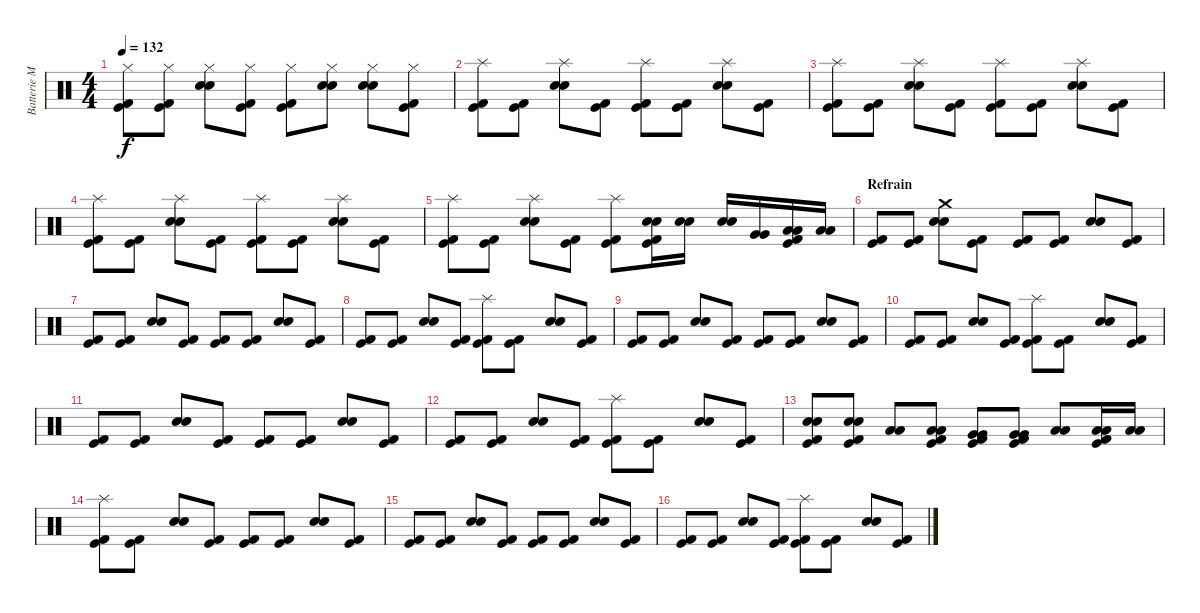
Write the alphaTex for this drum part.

\track ("Batterie Mat" "Batterie M") {instrument percussion}
\staff {score}
\articulation defaults
\ts (4 4)
\tempo 132
\clef neutral
\ks c
("Hi-Hat (closed)" "Kick (hit) 2" "Kick (hit)").8{dy f} ("Hi-Hat (closed)" "Kick (hit) 2" "Kick (hit)").8 ("Hi-Hat (closed)" "Electric Snare (hit)" "Electric Snare (hit)").8 ("Hi-Hat (closed)" "Kick (hit) 2" "Kick (hit)").8 ("Hi-Hat (closed)" "Kick (hit) 2" "Kick (hit)").8 ("Hi-Hat (closed)" "Electric Snare (hit)" "Electric Snare (hit)").8 ("Hi-Hat (closed)" "Electric Snare (hit)" "Electric Snare (hit)").8 ("Hi-Hat (closed)" "Kick (hit) 2" "Kick (hit)").8 |
("Splash (hit)" "Kick (hit) 2" "Kick (hit)").8 ("Kick (hit) 2" "Kick (hit)").8 ("Splash (hit)" "Electric Snare (hit)" "Electric Snare (hit)").8 ("Kick (hit) 2" "Kick (hit)").8 ("Splash (hit)" "Kick (hit) 2" "Kick (hit)").8 ("Kick (hit) 2" "Kick (hit)").8 ("Splash (hit)" "Electric Snare (hit)" "Electric Snare (hit)").8 ("Kick (hit) 2" "Kick (hit)").8 |
("Splash (hit)" "Kick (hit) 2" "Kick (hit)").8 ("Kick (hit) 2" "Kick (hit)").8 ("Splash (hit)" "Electric Snare (hit)" "Electric Snare (hit)").8 ("Kick (hit) 2" "Kick (hit)").8 ("Splash (hit)" "Kick (hit) 2" "Kick (hit)").8 ("Kick (hit) 2" "Kick (hit)").8 ("Splash (hit)" "Electric Snare (hit)" "Electric Snare (hit)").8 ("Kick (hit) 2" "Kick (hit)").8 |
("Splash (hit)" "Kick (hit) 2" "Kick (hit)").8 ("Kick (hit) 2" "Kick (hit)").8 ("Splash (hit)" "Electric Snare (hit)" "Electric Snare (hit)").8 ("Kick (hit) 2" "Kick (hit)").8 ("Splash (hit)" "Kick (hit) 2" "Kick (hit)").8 ("Kick (hit) 2" "Kick (hit)").8 ("Splash (hit)" "Electric Snare (hit)" "Electric Snare (hit)").8 ("Kick (hit) 2" "Kick (hit)").8 |
("Splash (hit)" "Kick (hit) 2" "Kick (hit)").8 ("Kick (hit) 2" "Kick (hit)").8 ("Splash (hit)" "Electric Snare (hit)" "Electric Snare (hit)").8 ("Kick (hit) 2" "Kick (hit)").8 ("Splash (hit)" "Kick (hit) 2" "Kick (hit)").8 ("Electric Snare (hit)" "Electric Snare (hit)" "Kick (hit) 2" "Kick (hit)").16 ("Electric Snare (hit)" "Electric Snare (hit)").16 ("Electric Snare (hit)" "Electric Snare (hit)").16 ("Very Low Tom (hit)" "Very Low Tom (hit)").16 ("Low Floor Tom (hit)" "Low Floor Tom (hit)" "Kick (hit) 2" "Kick (hit)").16 ("Low Floor Tom (hit)" "Low Floor Tom (hit)").16 |
\section ("" "Refrain")
("Kick (hit) 2" "Kick (hit)").8 ("Kick (hit) 2" "Kick (hit)").8 ("Crash medium (hit)" "Electric Snare (hit)" "Electric Snare (hit)").8 ("Kick (hit) 2" "Kick (hit)").8 ("Kick (hit) 2" "Kick (hit)").8 ("Kick (hit) 2" "Kick (hit)").8 ("Electric Snare (hit)" "Electric Snare (hit)").8 ("Kick (hit) 2" "Kick (hit)").8 |
("Kick (hit) 2" "Kick (hit)").8 ("Kick (hit) 2" "Kick (hit)").8 ("Electric Snare (hit)" "Electric Snare (hit)").8 ("Kick (hit) 2" "Kick (hit)").8 ("Kick (hit) 2" "Kick (hit)").8 ("Kick (hit) 2" "Kick (hit)").8 ("Electric Snare (hit)" "Electric Snare (hit)").8 ("Kick (hit) 2" "Kick (hit)").8 |
("Kick (hit) 2" "Kick (hit)").8 ("Kick (hit) 2" "Kick (hit)").8 ("Electric Snare (hit)" "Electric Snare (hit)").8 ("Kick (hit) 2" "Kick (hit)").8 ("Splash (hit)" "Kick (hit) 2" "Kick (hit)").8 ("Kick (hit) 2" "Kick (hit)").8 ("Electric Snare (hit)" "Electric Snare (hit)").8 ("Kick (hit) 2" "Kick (hit)").8 |
("Kick (hit) 2" "Kick (hit)").8 ("Kick (hit) 2" "Kick (hit)").8 ("Electric Snare (hit)" "Electric Snare (hit)").8 ("Kick (hit) 2" "Kick (hit)").8 ("Kick (hit) 2" "Kick (hit)").8 ("Kick (hit) 2" "Kick (hit)").8 ("Electric Snare (hit)" "Electric Snare (hit)").8 ("Kick (hit) 2" "Kick (hit)").8 |
("Kick (hit) 2" "Kick (hit)").8 ("Kick (hit) 2" "Kick (hit)").8 ("Electric Snare (hit)" "Electric Snare (hit)").8 ("Kick (hit) 2" "Kick (hit)").8 ("Splash (hit)" "Kick (hit) 2" "Kick (hit)").8 ("Kick (hit) 2" "Kick (hit)").8 ("Electric Snare (hit)" "Electric Snare (hit)").8 ("Kick (hit) 2" "Kick (hit)").8 |
("Kick (hit) 2" "Kick (hit)").8 ("Kick (hit) 2" "Kick (hit)").8 ("Electric Snare (hit)" "Electric Snare (hit)").8 ("Kick (hit) 2" "Kick (hit)").8 ("Kick (hit) 2" "Kick (hit)").8 ("Kick (hit) 2" "Kick (hit)").8 ("Electric Snare (hit)" "Electric Snare (hit)").8 ("Kick (hit) 2" "Kick (hit)").8 |
("Kick (hit) 2" "Kick (hit)").8 ("Kick (hit) 2" "Kick (hit)").8 ("Electric Snare (hit)" "Electric Snare (hit)").8 ("Kick (hit) 2" "Kick (hit)").8 ("Splash (hit)" "Kick (hit) 2" "Kick (hit)").8 ("Kick (hit) 2" "Kick (hit)").8 ("Electric Snare (hit)" "Electric Snare (hit)").8 ("Kick (hit) 2" "Kick (hit)").8 |
("Electric Snare (hit)" "Electric Snare (hit)" "Kick (hit) 2" "Kick (hit)").8 ("Electric Snare (hit)" "Electric Snare (hit)" "Kick (hit) 2" "Kick (hit)").8 ("Low Tom (hit)" "Low Tom (hit)").8 ("Low Tom (hit)" "Low Tom (hit)" "Kick (hit) 2" "Kick (hit)").8 ("Very Low Tom (hit)" "Very Low Tom (hit)" "Kick (hit) 2" "Kick (hit)").8 ("Very Low Tom (hit)" "Very Low Tom (hit)" "Kick (hit) 2" "Kick (hit)").8 ("Low Floor Tom (hit)" "Low Floor Tom (hit)").8 ("Low Floor Tom (hit)" "Low Floor Tom (hit)" "Kick (hit) 2" "Kick (hit)").16 ("Low Floor Tom (hit)" "Low Floor Tom (hit)").16 |
("Splash (hit)" "Kick (hit) 2" "Kick (hit)").8 ("Kick (hit) 2" "Kick (hit)").8 ("Electric Snare (hit)" "Electric Snare (hit)").8 ("Kick (hit) 2" "Kick (hit)").8 ("Kick (hit) 2" "Kick (hit)").8 ("Kick (hit) 2" "Kick (hit)").8 ("Electric Snare (hit)" "Electric Snare (hit)").8 ("Kick (hit) 2" "Kick (hit)").8 |
("Kick (hit) 2" "Kick (hit)").8 ("Kick (hit) 2" "Kick (hit)").8 ("Electric Snare (hit)" "Electric Snare (hit)").8 ("Kick (hit) 2" "Kick (hit)").8 ("Kick (hit) 2" "Kick (hit)").8 ("Kick (hit) 2" "Kick (hit)").8 ("Electric Snare (hit)" "Electric Snare (hit)").8 ("Kick (hit) 2" "Kick (hit)").8 |
("Kick (hit) 2" "Kick (hit)").8 ("Kick (hit) 2" "Kick (hit)").8 ("Electric Snare (hit)" "Electric Snare (hit)").8 ("Kick (hit) 2" "Kick (hit)").8 ("Splash (hit)" "Kick (hit) 2" "Kick (hit)").8 ("Kick (hit) 2" "Kick (hit)").8 ("Electric Snare (hit)" "Electric Snare (hit)").8 ("Kick (hit) 2" "Kick (hit)").8
